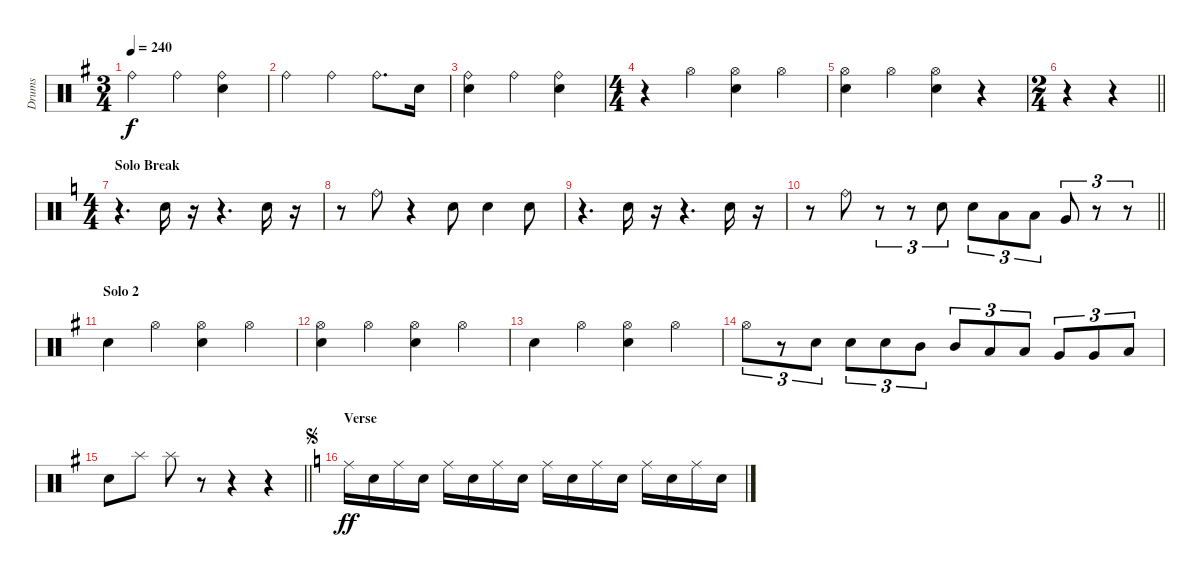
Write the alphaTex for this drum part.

\track ("Drums" "Drums") {instrument percussion}
\staff {score}
\articulation defaults
\ts (3 4)
\tempo 240
\clef neutral
\ks g "Ride (bell)".4{dy f} "Ride (bell)".4
("Ride (bell)" "Electric Snare (hit)").4 |
"Ride (bell)".4 "Ride (bell)".4 "Ride (bell)".8{d} "Electric Snare (hit)".16 |
("Ride (bell)" "Electric Snare (hit)").4 "Ride (bell)".4 ("Ride (bell)" "Electric Snare (hit)").4 |
\ts (4 4)
r.4 "Hi-Hat (open)".4 ("Hi-Hat (open)" "Electric Snare (hit)").4 "Hi-Hat (open)".4 |
("Hi-Hat (open)" "Electric Snare (hit)").4 "Hi-Hat (open)".4 ("Hi-Hat (open)" "Electric Snare (hit)").4 r.4 |
\ts (2 4)
\barLineRight lightlight
r.4 r.4 |
\ts (4 4)
\section ("" "Solo Break")
\ks c
r.4{d} "Electric Snare (hit)".16 r.16 r.4{d} "Electric Snare (hit)".16 r.16 |
r.8 "Ride (bell)".8 r.4 "Electric Snare (hit)".8 "Electric Snare (hit)".4 "Electric Snare (hit)".8 |
r.4{d} "Electric Snare (hit)".16 r.16 r.4{d} "Electric Snare (hit)".16 r.16 |
\barLineRight lightlight
r.8 "Ride (bell)".8 r.8{tu (3 2)} r.8{tu (3 2)} "Electric Snare (hit)".8{tu (3 2)} "Electric Snare (hit)".8{tu (3 2)} "Low Tom (hit)".8{tu (3 2)} "Low Tom (hit)".8{tu (3 2)} "Very Low Tom (hit)".8{tu (3 2)} r.8{tu (3 2)} r.8{tu (3 2)} |
\section ("" "Solo 2")
\ks g "Electric Snare (hit)".4 "Hi-Hat (open)".4
("Hi-Hat (open)" "Electric Snare (hit)").4 "Hi-Hat (open)".4 |
("Hi-Hat (open)" "Electric Snare (hit)").4 "Hi-Hat (open)".4 ("Hi-Hat (open)" "Electric Snare (hit)").4 "Hi-Hat (open)".4 |
"Electric Snare (hit)".4 "Hi-Hat (open)".4 ("Hi-Hat (open)" "Electric Snare (hit)").4 "Hi-Hat (open)".4 |
"Hi-Hat (open)".8{tu (3 2)} r.8{tu (3 2)} "Electric Snare (hit)".8{tu (3 2)} "Electric Snare (hit)".8{tu (3 2)} "Electric Snare (hit)".8{tu (3 2)} "Mid Tom (hit)".8{tu (3 2)} "Mid Tom (hit)".8{tu (3 2)} "Low Tom (hit)".8{tu (3 2)} "Low Tom (hit)".8{tu (3 2)} "Very Low Tom (hit)".8{tu (3 2)} "Very Low Tom (hit)".8{tu (3 2)} "Low Floor Tom (hit)".8{tu (3 2)} |
\barLineRight lightlight "Electric Snare (hit)".8 "Splash (hit)".8{volume 10} "Splash (hit)".8{volume 14}
r.8 r.4 r.4 |
\section ("" "Verse ")
\jump segno
\ks c "Ride (middle)".16{dy ff} "Electric Snare (hit)".16 "Ride (middle)".16 "Electric Snare (hit)".16 "Ride (middle)".16 "Electric Snare (hit)".16 "Ride (middle)".16 "Electric Snare (hit)".16 "Ride (middle)".16 "Electric Snare (hit)".16 "Ride (middle)".16 "Electric Snare (hit)".16 "Ride (middle)".16 "Electric Snare (hit)".16 "Ride (middle)".16 "Electric Snare (hit)".16
